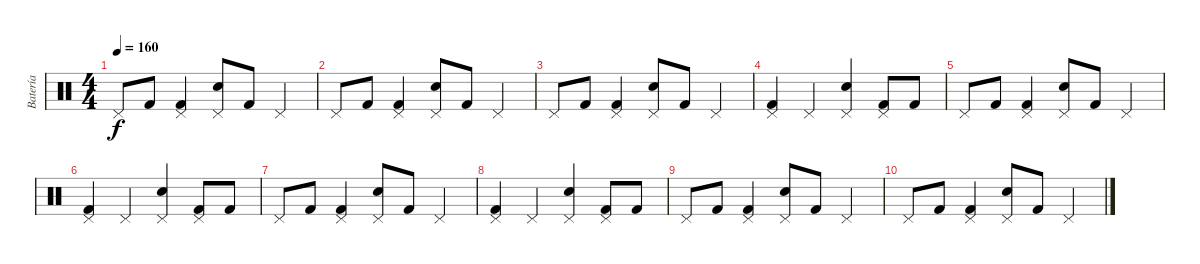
\track ("Batería" "Batería") {instrument percussion}
\staff {score}
\articulation defaults
\ts (4 4)
\tempo 160
\clef neutral
\ks c "Pedal Hi-Hat (hit)".8{dy f} "Kick (hit) 2".8
("Kick (hit) 2" "Pedal Hi-Hat (hit)").4 ("Electric Snare (hit)" "Pedal Hi-Hat (hit)").8 "Kick (hit) 2".8 "Pedal Hi-Hat (hit)".4 |
"Pedal Hi-Hat (hit)".8 "Kick (hit) 2".8 ("Kick (hit) 2" "Pedal Hi-Hat (hit)").4 ("Electric Snare (hit)" "Pedal Hi-Hat (hit)").8 "Kick (hit) 2".8 "Pedal Hi-Hat (hit)".4 |
"Pedal Hi-Hat (hit)".8 "Kick (hit) 2".8 ("Kick (hit) 2" "Pedal Hi-Hat (hit)").4 ("Electric Snare (hit)" "Pedal Hi-Hat (hit)").8 "Kick (hit) 2".8 "Pedal Hi-Hat (hit)".4 |
("Kick (hit) 2" "Pedal Hi-Hat (hit)").4 "Pedal Hi-Hat (hit)".4 ("Electric Snare (hit)" "Pedal Hi-Hat (hit)").4 ("Kick (hit) 2" "Pedal Hi-Hat (hit)").8 "Kick (hit) 2".8 |
"Pedal Hi-Hat (hit)".8 "Kick (hit) 2".8 ("Kick (hit) 2" "Pedal Hi-Hat (hit)").4 ("Electric Snare (hit)" "Pedal Hi-Hat (hit)").8 "Kick (hit) 2".8 "Pedal Hi-Hat (hit)".4 |
("Kick (hit) 2" "Pedal Hi-Hat (hit)").4 "Pedal Hi-Hat (hit)".4 ("Electric Snare (hit)" "Pedal Hi-Hat (hit)").4 ("Kick (hit) 2" "Pedal Hi-Hat (hit)").8 "Kick (hit) 2".8 |
"Pedal Hi-Hat (hit)".8 "Kick (hit) 2".8 ("Kick (hit) 2" "Pedal Hi-Hat (hit)").4 ("Electric Snare (hit)" "Pedal Hi-Hat (hit)").8 "Kick (hit) 2".8 "Pedal Hi-Hat (hit)".4 |
("Kick (hit) 2" "Pedal Hi-Hat (hit)").4 "Pedal Hi-Hat (hit)".4 ("Electric Snare (hit)" "Pedal Hi-Hat (hit)").4 ("Kick (hit) 2" "Pedal Hi-Hat (hit)").8 "Kick (hit) 2".8 |
"Pedal Hi-Hat (hit)".8 "Kick (hit) 2".8 ("Kick (hit) 2" "Pedal Hi-Hat (hit)").4 ("Electric Snare (hit)" "Pedal Hi-Hat (hit)").8 "Kick (hit) 2".8 "Pedal Hi-Hat (hit)".4 |
"Pedal Hi-Hat (hit)".8 "Kick (hit) 2".8 ("Kick (hit) 2" "Pedal Hi-Hat (hit)").4 ("Electric Snare (hit)" "Pedal Hi-Hat (hit)").8 "Kick (hit) 2".8 "Pedal Hi-Hat (hit)".4
